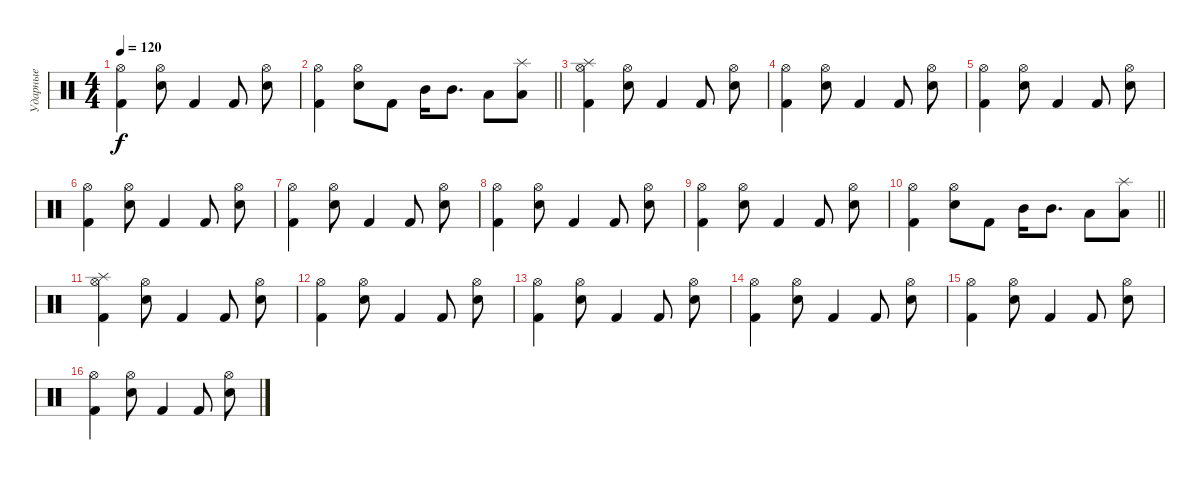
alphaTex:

\track ("Ударные" "Ударные") {instrument percussion}
\staff {score}
\articulation defaults
\ts (4 4)
\tempo 120
\clef neutral
\ks c
("Kick (hit) 2" "Hi-Hat (open)").4{dy f} ("Electric Snare (hit)" "Hi-Hat (open)").8 "Kick (hit) 2".4 "Kick (hit) 2".8 ("Electric Snare (hit)" "Hi-Hat (open)").8 |
\barLineRight lightlight
("Kick (hit) 2" "Hi-Hat (open)").4 ("Electric Snare (hit)" "Hi-Hat (open)").8 "Kick (hit) 2".8 "Mid Tom (hit)".16 "Mid Tom (hit)".8{d} "Low Tom (hit)".8 ("Low Tom (hit)" "Splash (hit)").8 |
("Kick (hit) 2" "Splash (hit)" "Hi-Hat (open)").4 ("Electric Snare (hit)" "Hi-Hat (open)").8 "Kick (hit) 2".4 "Kick (hit) 2".8 ("Electric Snare (hit)" "Hi-Hat (open)").8 |
("Kick (hit) 2" "Hi-Hat (open)").4 ("Electric Snare (hit)" "Hi-Hat (open)").8 "Kick (hit) 2".4 "Kick (hit) 2".8 ("Electric Snare (hit)" "Hi-Hat (open)").8 |
("Kick (hit) 2" "Hi-Hat (open)").4 ("Electric Snare (hit)" "Hi-Hat (open)").8 "Kick (hit) 2".4 "Kick (hit) 2".8 ("Electric Snare (hit)" "Hi-Hat (open)").8 |
("Kick (hit) 2" "Hi-Hat (open)").4 ("Electric Snare (hit)" "Hi-Hat (open)").8 "Kick (hit) 2".4 "Kick (hit) 2".8 ("Electric Snare (hit)" "Hi-Hat (open)").8 |
("Kick (hit) 2" "Hi-Hat (open)").4 ("Electric Snare (hit)" "Hi-Hat (open)").8 "Kick (hit) 2".4 "Kick (hit) 2".8 ("Electric Snare (hit)" "Hi-Hat (open)").8 |
("Kick (hit) 2" "Hi-Hat (open)").4 ("Electric Snare (hit)" "Hi-Hat (open)").8 "Kick (hit) 2".4 "Kick (hit) 2".8 ("Electric Snare (hit)" "Hi-Hat (open)").8 |
("Kick (hit) 2" "Hi-Hat (open)").4 ("Electric Snare (hit)" "Hi-Hat (open)").8 "Kick (hit) 2".4 "Kick (hit) 2".8 ("Electric Snare (hit)" "Hi-Hat (open)").8 |
\barLineRight lightlight
("Kick (hit) 2" "Hi-Hat (open)").4 ("Electric Snare (hit)" "Hi-Hat (open)").8 "Kick (hit) 2".8 "Mid Tom (hit)".16 "Mid Tom (hit)".8{d} "Low Tom (hit)".8 ("Low Tom (hit)" "Splash (hit)").8 |
("Kick (hit) 2" "Splash (hit)" "Hi-Hat (open)").4 ("Electric Snare (hit)" "Hi-Hat (open)").8 "Kick (hit) 2".4 "Kick (hit) 2".8 ("Electric Snare (hit)" "Hi-Hat (open)").8 |
("Kick (hit) 2" "Hi-Hat (open)").4 ("Electric Snare (hit)" "Hi-Hat (open)").8 "Kick (hit) 2".4 "Kick (hit) 2".8 ("Electric Snare (hit)" "Hi-Hat (open)").8 |
("Kick (hit) 2" "Hi-Hat (open)").4 ("Electric Snare (hit)" "Hi-Hat (open)").8 "Kick (hit) 2".4 "Kick (hit) 2".8 ("Electric Snare (hit)" "Hi-Hat (open)").8 |
("Kick (hit) 2" "Hi-Hat (open)").4 ("Electric Snare (hit)" "Hi-Hat (open)").8 "Kick (hit) 2".4 "Kick (hit) 2".8 ("Electric Snare (hit)" "Hi-Hat (open)").8 |
("Kick (hit) 2" "Hi-Hat (open)").4 ("Electric Snare (hit)" "Hi-Hat (open)").8 "Kick (hit) 2".4 "Kick (hit) 2".8 ("Electric Snare (hit)" "Hi-Hat (open)").8 |
("Kick (hit) 2" "Hi-Hat (open)").4 ("Electric Snare (hit)" "Hi-Hat (open)").8 "Kick (hit) 2".4 "Kick (hit) 2".8 ("Electric Snare (hit)" "Hi-Hat (open)").8
